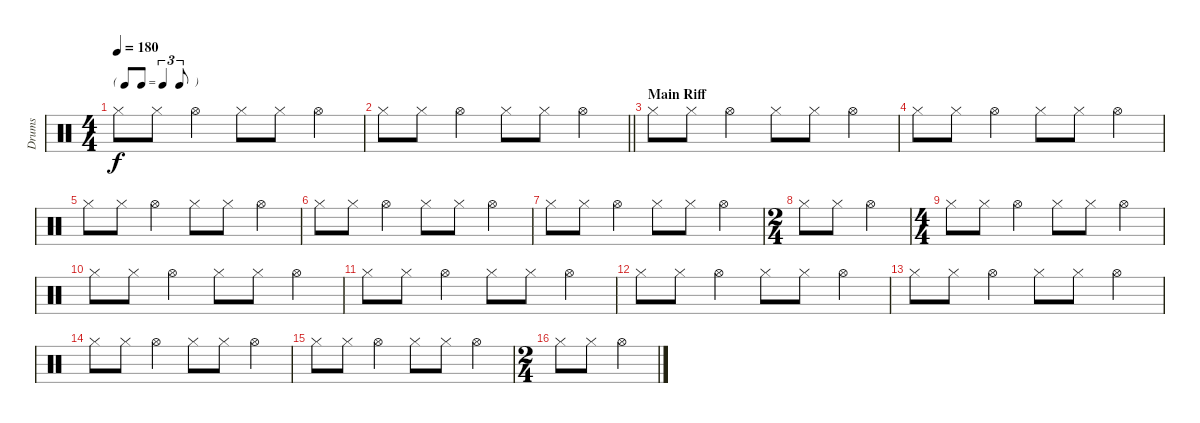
\track ("Drums" "Drums") {instrument percussion}
\staff {score}
\articulation defaults
\ts (4 4)
\tf triplet8th
\tempo 180
\clef neutral
\ks c "Hi-Hat (closed)".8{dy f} "Hi-Hat (closed)".8 "Hi-Hat (open)".4 "Hi-Hat (closed)".8 "Hi-Hat (closed)".8 "Hi-Hat (open)".4
|
\barLineRight lightlight "Hi-Hat (closed)".8 "Hi-Hat (closed)".8 "Hi-Hat (open)".4 "Hi-Hat (closed)".8 "Hi-Hat (closed)".8 "Hi-Hat (open)".4
|
\section ("" "Main Riff")
"Hi-Hat (closed)".8 "Hi-Hat (closed)".8 "Hi-Hat (open)".4 "Hi-Hat (closed)".8 "Hi-Hat (closed)".8 "Hi-Hat (open)".4 |
"Hi-Hat (closed)".8 "Hi-Hat (closed)".8 "Hi-Hat (open)".4 "Hi-Hat (closed)".8 "Hi-Hat (closed)".8 "Hi-Hat (open)".4 |
"Hi-Hat (closed)".8 "Hi-Hat (closed)".8 "Hi-Hat (open)".4 "Hi-Hat (closed)".8 "Hi-Hat (closed)".8 "Hi-Hat (open)".4 |
"Hi-Hat (closed)".8 "Hi-Hat (closed)".8 "Hi-Hat (open)".4 "Hi-Hat (closed)".8 "Hi-Hat (closed)".8 "Hi-Hat (open)".4 |
"Hi-Hat (closed)".8 "Hi-Hat (closed)".8 "Hi-Hat (open)".4 "Hi-Hat (closed)".8 "Hi-Hat (closed)".8 "Hi-Hat (open)".4 |
\ts (2 4)
"Hi-Hat (closed)".8 "Hi-Hat (closed)".8 "Hi-Hat (open)".4 |
\ts (4 4)
"Hi-Hat (closed)".8 "Hi-Hat (closed)".8 "Hi-Hat (open)".4 "Hi-Hat (closed)".8 "Hi-Hat (closed)".8 "Hi-Hat (open)".4 |
"Hi-Hat (closed)".8 "Hi-Hat (closed)".8 "Hi-Hat (open)".4 "Hi-Hat (closed)".8 "Hi-Hat (closed)".8 "Hi-Hat (open)".4 |
"Hi-Hat (closed)".8 "Hi-Hat (closed)".8 "Hi-Hat (open)".4 "Hi-Hat (closed)".8 "Hi-Hat (closed)".8 "Hi-Hat (open)".4 |
"Hi-Hat (closed)".8 "Hi-Hat (closed)".8 "Hi-Hat (open)".4 "Hi-Hat (closed)".8 "Hi-Hat (closed)".8 "Hi-Hat (open)".4 |
"Hi-Hat (closed)".8 "Hi-Hat (closed)".8 "Hi-Hat (open)".4 "Hi-Hat (closed)".8 "Hi-Hat (closed)".8 "Hi-Hat (open)".4 |
"Hi-Hat (closed)".8 "Hi-Hat (closed)".8 "Hi-Hat (open)".4 "Hi-Hat (closed)".8 "Hi-Hat (closed)".8 "Hi-Hat (open)".4 |
"Hi-Hat (closed)".8 "Hi-Hat (closed)".8 "Hi-Hat (open)".4 "Hi-Hat (closed)".8 "Hi-Hat (closed)".8 "Hi-Hat (open)".4 |
\ts (2 4)
"Hi-Hat (closed)".8 "Hi-Hat (closed)".8 "Hi-Hat (open)".4
